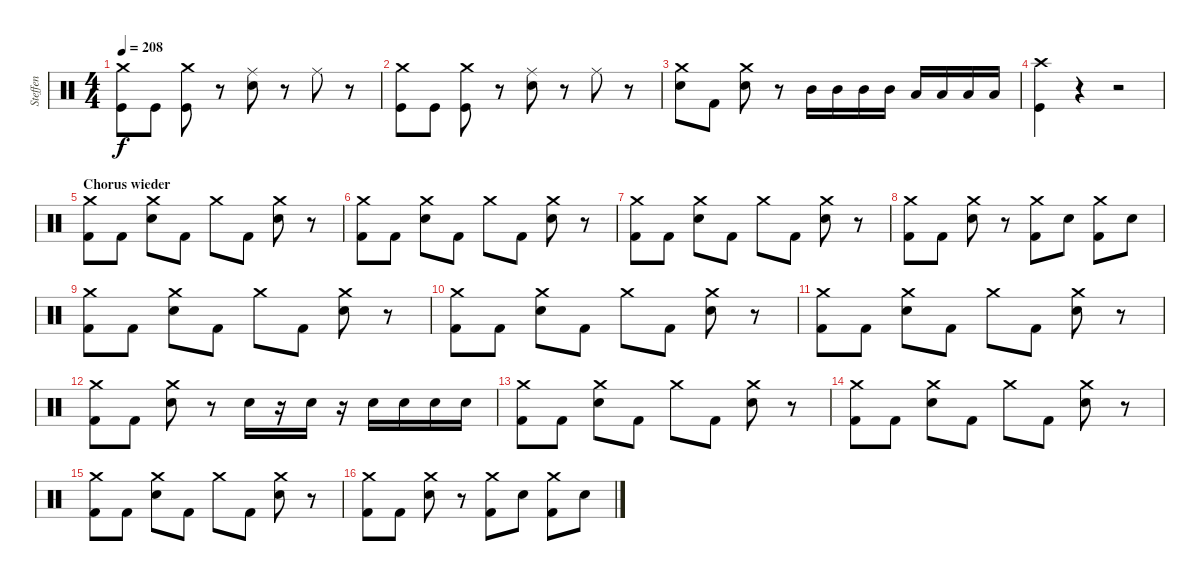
\track ("Steffen" "Steffen") {instrument percussion}
\staff {score}
\articulation defaults
\ts (4 4)
\tempo 208
\clef neutral
\ks c
("Crash medium (hit)" "Kick (hit)").8{dy f} "Kick (hit)".8 ("Crash medium (hit)" "Kick (hit)").8 r.8 ("Ride (middle)" "Electric Snare (hit)").8 r.8 "Ride (middle)".8 r.8 |
("Crash medium (hit)" "Kick (hit)").8 "Kick (hit)".8 ("Crash medium (hit)" "Kick (hit)").8 r.8 ("Ride (middle)" "Electric Snare (hit)").8 r.8 "Ride (middle)".8 r.8 |
("Crash medium (hit)" "Electric Snare (hit)").8 "Kick (hit) 2".8 ("Crash medium (hit)" "Electric Snare (hit)").8 r.8 "Mid Tom (hit)".16 "Mid Tom (hit)".16 "Mid Tom (hit)".16 "Mid Tom (hit)".16 "Low Tom (hit)".16 "Low Tom (hit)".16 "Low Tom (hit)".16 "Low Tom (hit)".16 |
("Crash high (hit)" "Kick (hit)").4 r.4 r.2 |
\section ("" "Chorus wieder")
("Crash medium (hit)" "Kick (hit) 2").8 "Kick (hit) 2".8 ("Crash medium (hit)" "Snare (hit) 2").8 "Kick (hit) 2".8 "Crash medium (hit)".8 "Kick (hit) 2".8 ("Crash medium (hit)" "Snare (hit) 2").8 r.8 |
("Crash medium (hit)" "Kick (hit) 2").8 "Kick (hit) 2".8 ("Crash medium (hit)" "Snare (hit) 2").8 "Kick (hit) 2".8 "Crash medium (hit)".8 "Kick (hit) 2".8 ("Crash medium (hit)" "Snare (hit) 2").8 r.8 |
("Crash medium (hit)" "Kick (hit) 2").8 "Kick (hit) 2".8 ("Crash medium (hit)" "Snare (hit) 2").8 "Kick (hit) 2".8 "Crash medium (hit)".8 "Kick (hit) 2".8 ("Crash medium (hit)" "Snare (hit) 2").8 r.8 |
("Crash medium (hit)" "Kick (hit) 2").8 "Kick (hit) 2".8 ("Crash medium (hit)" "Snare (hit) 2").8 r.8 ("Crash medium (hit)" "Kick (hit) 2").8 "Snare (hit) 2".8 ("Crash medium (hit)" "Kick (hit) 2").8 "Snare (hit) 2".8 |
("Crash medium (hit)" "Kick (hit) 2").8 "Kick (hit) 2".8 ("Crash medium (hit)" "Snare (hit) 2").8 "Kick (hit) 2".8 "Crash medium (hit)".8 "Kick (hit) 2".8 ("Crash medium (hit)" "Snare (hit) 2").8 r.8 |
("Crash medium (hit)" "Kick (hit) 2").8 "Kick (hit) 2".8 ("Crash medium (hit)" "Snare (hit) 2").8 "Kick (hit) 2".8 "Crash medium (hit)".8 "Kick (hit) 2".8 ("Crash medium (hit)" "Snare (hit) 2").8 r.8 |
("Crash medium (hit)" "Kick (hit) 2").8 "Kick (hit) 2".8 ("Crash medium (hit)" "Snare (hit) 2").8 "Kick (hit) 2".8 "Crash medium (hit)".8 "Kick (hit) 2".8 ("Crash medium (hit)" "Snare (hit) 2").8 r.8 |
("Crash medium (hit)" "Kick (hit) 2").8 "Kick (hit) 2".8 ("Crash medium (hit)" "Snare (hit) 2").8 r.8 "Snare (hit) 2".16 r.16 "Snare (hit) 2".16 r.16 "Snare (hit) 2".16 "Snare (hit) 2".16 "Snare (hit) 2".16 "Snare (hit) 2".16 |
("Crash medium (hit)" "Kick (hit) 2").8 "Kick (hit) 2".8 ("Crash medium (hit)" "Snare (hit) 2").8 "Kick (hit) 2".8 "Crash medium (hit)".8 "Kick (hit) 2".8 ("Crash medium (hit)" "Snare (hit) 2").8 r.8 |
("Crash medium (hit)" "Kick (hit) 2").8 "Kick (hit) 2".8 ("Crash medium (hit)" "Snare (hit) 2").8 "Kick (hit) 2".8 "Crash medium (hit)".8 "Kick (hit) 2".8 ("Crash medium (hit)" "Snare (hit) 2").8 r.8 |
("Crash medium (hit)" "Kick (hit) 2").8 "Kick (hit) 2".8 ("Crash medium (hit)" "Snare (hit) 2").8 "Kick (hit) 2".8 "Crash medium (hit)".8 "Kick (hit) 2".8 ("Crash medium (hit)" "Snare (hit) 2").8 r.8 |
("Crash medium (hit)" "Kick (hit) 2").8 "Kick (hit) 2".8 ("Crash medium (hit)" "Snare (hit) 2").8 r.8 ("Crash medium (hit)" "Kick (hit) 2").8 "Snare (hit) 2".8 ("Crash medium (hit)" "Kick (hit) 2").8 "Snare (hit) 2".8
